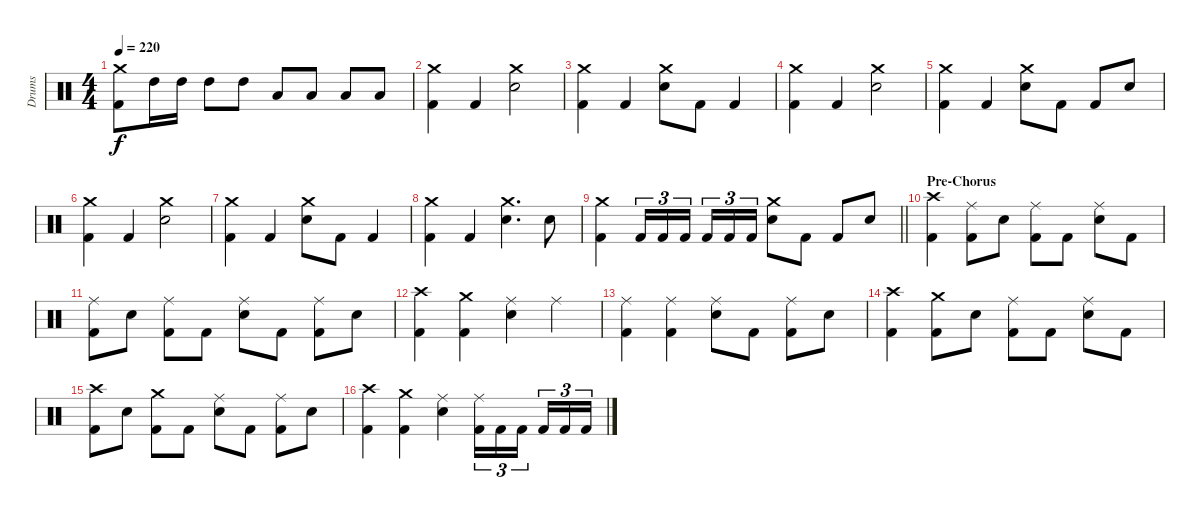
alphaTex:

\track ("Drums" "Drums") {instrument percussion}
\staff {score}
\articulation defaults
\ts (4 4)
\tempo 220
\clef neutral
\ks c
("Crash medium (hit)" "Kick (hit) 2").8{dy f} "High Tom (hit)".16 "High Tom (hit)".16 "High Tom (hit)".8 "High Tom (hit)".8 "Low Tom (hit)".8 "Low Tom (hit)".8 "Low Tom (hit)".8 "Low Tom (hit)".8 |
("Crash medium (hit)" "Kick (hit) 2").4 "Kick (hit) 2".4 ("Crash medium (hit)" "Snare (hit) 2").2 |
("Crash medium (hit)" "Kick (hit) 2").4 "Kick (hit) 2".4 ("Crash medium (hit)" "Snare (hit) 2").8 "Kick (hit) 2".8 "Kick (hit) 2".4 |
("Crash medium (hit)" "Kick (hit) 2").4 "Kick (hit) 2".4 ("Crash medium (hit)" "Snare (hit) 2").2 |
("Crash medium (hit)" "Kick (hit) 2").4 "Kick (hit) 2".4 ("Crash medium (hit)" "Snare (hit) 2").8 "Kick (hit) 2".8 "Kick (hit) 2".8 "Snare (hit) 2".8 |
("Crash medium (hit)" "Kick (hit) 2").4 "Kick (hit) 2".4 ("Crash medium (hit)" "Snare (hit) 2").2 |
("Crash medium (hit)" "Kick (hit) 2").4 "Kick (hit) 2".4 ("Crash medium (hit)" "Snare (hit) 2").8 "Kick (hit) 2".8 "Kick (hit) 2".4 |
("Crash medium (hit)" "Kick (hit) 2").4 "Kick (hit) 2".4 ("Crash medium (hit)" "Snare (hit) 2").4{d} "Snare (hit) 2".8 |
\barLineRight lightlight
("Crash medium (hit)" "Kick (hit) 2").4 "Kick (hit) 2".16{tu (3 2)} "Kick (hit) 2".16{tu (3 2)} "Kick (hit) 2".16{tu (3 2) beam splitsecondary} "Kick (hit) 2".16{tu (3 2)} "Kick (hit) 2".16{tu (3 2)} "Kick (hit) 2".16{tu (3 2)} ("Crash medium (hit)" "Snare (hit) 2").8 "Kick (hit) 2".8 "Kick (hit) 2".8 "Snare (hit) 2".8 |
\section ("" "Pre-Chorus")
("Crash high (hit)" "Kick (hit) 2").4 ("Ride (middle)" "Kick (hit) 2").8 "Snare (hit) 2".8 ("Ride (middle)" "Kick (hit) 2").8 "Kick (hit) 2".8 ("Ride (middle)" "Snare (hit) 2").8 "Kick (hit) 2".8 |
("Ride (middle)" "Kick (hit) 2").8 "Snare (hit) 2".8 ("Ride (middle)" "Kick (hit) 2").8 "Kick (hit) 2".8 ("Ride (middle)" "Snare (hit) 2").8 "Kick (hit) 2".8 ("Ride (middle)" "Kick (hit) 2").8 "Snare (hit) 2".8 |
("Crash high (hit)" "Kick (hit) 2").4 ("Crash medium (hit)" "Kick (hit) 2").4 ("Ride (middle)" "Snare (hit) 2").4 "Ride (middle)".4 |
("Ride (middle)" "Kick (hit) 2").4 ("Ride (middle)" "Kick (hit) 2").4 ("Ride (middle)" "Snare (hit) 2").8 "Kick (hit) 2".8 ("Ride (middle)" "Kick (hit) 2").8 "Snare (hit) 2".8 |
("Crash high (hit)" "Kick (hit) 2").4 ("Crash medium (hit)" "Kick (hit) 2").8 "Snare (hit) 2".8 ("Ride (middle)" "Kick (hit) 2").8 "Kick (hit) 2".8 ("Ride (middle)" "Snare (hit) 2").8 "Kick (hit) 2".8 |
("Crash high (hit)" "Kick (hit) 2").8 "Snare (hit) 2".8 ("Crash medium (hit)" "Kick (hit) 2").8 "Kick (hit) 2".8 ("Ride (middle)" "Snare (hit) 2").8 "Kick (hit) 2".8 ("Ride (middle)" "Kick (hit) 2").8 "Snare (hit) 2".8 |
("Crash high (hit)" "Kick (hit) 2").4 ("Crash medium (hit)" "Kick (hit) 2").4 ("Ride (middle)" "Snare (hit) 2").4 ("Ride (middle)" "Kick (hit) 2").16{tu (3 2)} "Kick (hit) 2".16{tu (3 2)} "Kick (hit) 2".16{tu (3 2) beam splitsecondary} "Kick (hit) 2".16{tu (3 2)} "Kick (hit) 2".16{tu (3 2)} "Kick (hit) 2".16{tu (3 2)}
